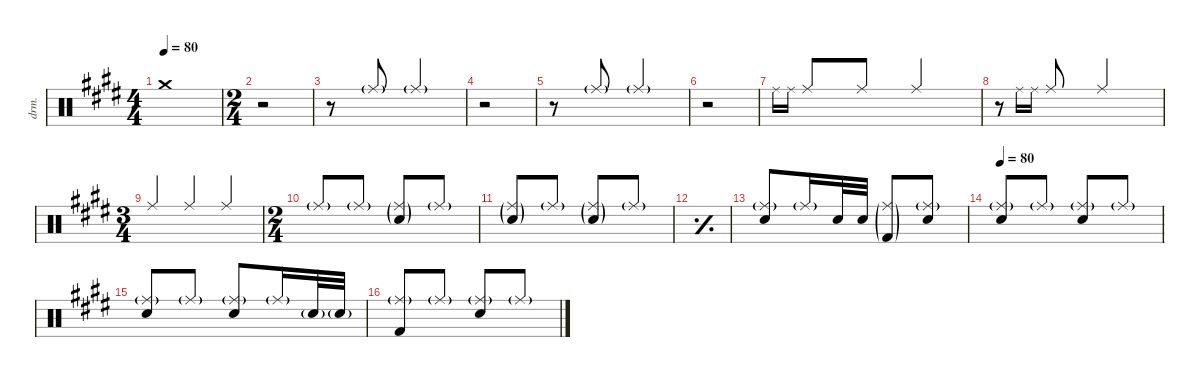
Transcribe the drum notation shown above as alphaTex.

\defaultSystemsLayout 4
\hideDynamics
\bracketExtendMode groupsimilarinstruments
\otherSystemsTrackNameOrientation horizontal
\chordDiagramsInScore
\track ("Drumkit" "drm.") {instrument percussion}
\staff {score}
\articulation defaults
\ts (4 4)
\tempo 80
\clef neutral
\ks e "Crash medium (hit)"{acc forcenatural}.1{dy mf}
|
\ts (2 4)
\beaming (8 2 2)
r.2 |
r.8 "Ride (middle)"{g acc forcenatural}.8{beam Up} "Ride (middle)"{g acc forcenatural}.4{beam Up} |
r.2{beam Up} |
r.8{beam Up} "Ride (middle)"{g acc forcenatural}.8{beam Up} "Ride (middle)"{g acc forcenatural}.4{beam Up} |
r.2 |
"Ride (middle)"{acc forcenatural}.16{gr onbeat beam Down} "Ride (middle)"{acc forcenatural}.16{gr onbeat beam Down} "Ride (middle)"{acc forcenatural}.8{beam Up} "Ride (middle)"{acc forcenatural}.8{beam Up} "Ride (middle)"{acc forcenatural}.4{beam Up} |
r.8 "Ride (middle)"{acc forcenatural}.16{gr onbeat beam Down} "Ride (middle)"{acc forcenatural}.16{gr onbeat beam Down} "Ride (middle)"{acc forcenatural}.8{beam Up} "Ride (middle)"{acc forcenatural}.4{beam Up} |
\ts (3 4)
\beaming (8 2 2 2)
"Ride (middle)"{acc forcenatural}.4{beam Up} "Ride (middle)"{acc forcenatural}.4{beam Up} "Ride (middle)"{acc forcenatural}.4{beam Up} |
\ts (2 4)
\beaming (8 2 2)
"Ride (middle)"{g acc forcenatural}.8{beam Up} "Ride (middle)"{g acc forcenatural}.8{beam Up} ("Ride (middle)"{g acc forcenatural} "Snare (hit) 2"{g acc forcenatural}).8{beam Up} "Ride (middle)"{g acc forcenatural}.8{beam Up} |
("Ride (middle)"{g acc forcenatural} "Snare (hit) 2"{g acc forcenatural}).8{beam Up} "Ride (middle)"{g acc forcenatural}.8{beam Up} ("Ride (middle)"{g acc forcenatural} "Snare (hit) 2"{g acc forcenatural}).8{beam Up} "Ride (middle)"{g acc forcenatural}.8{beam Up} |
\simile simple
|
\simile none
("Ride (middle)"{g acc forcenatural} "Snare (hit) 2"{acc forcenatural}).8{beam Up} "Ride (middle)"{g acc forcenatural}.16{beam Up} "Snare (hit) 2"{acc forcenatural}.32{beam Up} "Snare (hit) 2"{acc forcenatural}.32{beam Up} ("Ride (middle)"{g acc forcenatural} "Kick (hit) 2"{g acc forcenatural}).8{beam Up} ("Ride (middle)"{g acc forcenatural} "Snare (hit) 2"{acc forcenatural}).8{beam Up} |
\tempo 80
\scale
1.03535 ("Ride (middle)"{g acc forcenatural} "Snare (hit) 2"{acc forcenatural}).8{beam Up} "Ride (middle)"{g acc forcenatural}.8{beam Up} ("Ride (middle)"{g acc forcenatural} "Snare (hit) 2"{acc forcenatural}).8{beam Up} "Ride (middle)"{g acc forcenatural}.8{beam Up} |
\scale
1.05409 ("Ride (middle)"{g acc forcenatural} "Snare (hit) 2"{acc forcenatural}).8{beam Up} "Ride (middle)"{g acc forcenatural}.8{beam Up} ("Ride (middle)"{g acc forcenatural} "Snare (hit) 2"{acc forcenatural}).8{beam Up} "Ride (middle)"{g acc forcenatural}.16{beam Up} "Snare (hit) 2"{g acc forcenatural}.32{beam Up} "Snare (hit) 2"{g acc forcenatural}.32{beam Up} |
\scale
1.00942 ("Ride (middle)"{g acc forcenatural} "Kick (hit) 2"{acc forcenatural}).8{beam Up} "Ride (middle)"{g acc forcenatural}.8{beam Up} ("Ride (middle)"{g acc forcenatural} "Snare (hit) 2"{acc forcenatural}).8{beam Up} "Ride (middle)"{g acc forcenatural}.8{beam Up}
